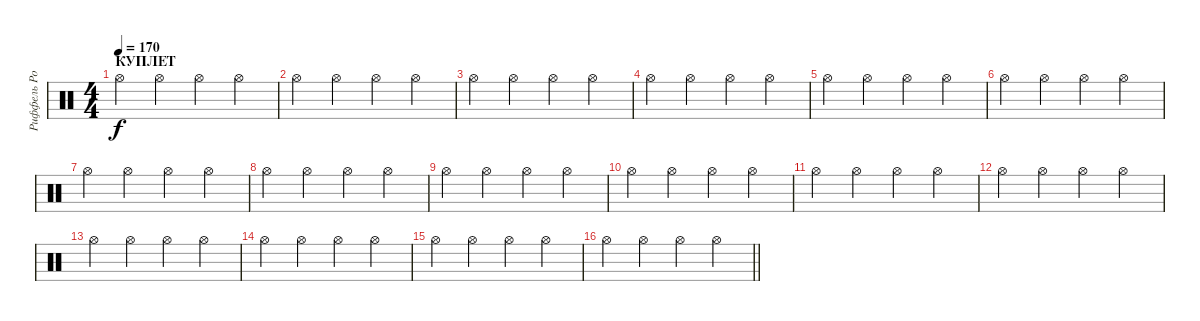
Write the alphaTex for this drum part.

\track ("Риффель Роман(хэты)" "Риффель Ро") {instrument percussion}
\staff {score}
\articulation defaults
\ts (4 4)
\section ("" "КУПЛЕТ")
\tempo 170
\clef neutral
\ks c "Hi-Hat (open)".4{dy f} "Hi-Hat (open)".4 "Hi-Hat (open)".4 "Hi-Hat (open)".4
|
"Hi-Hat (open)".4 "Hi-Hat (open)".4 "Hi-Hat (open)".4 "Hi-Hat (open)".4 |
"Hi-Hat (open)".4 "Hi-Hat (open)".4 "Hi-Hat (open)".4 "Hi-Hat (open)".4 |
"Hi-Hat (open)".4 "Hi-Hat (open)".4 "Hi-Hat (open)".4 "Hi-Hat (open)".4 |
"Hi-Hat (open)".4 "Hi-Hat (open)".4 "Hi-Hat (open)".4 "Hi-Hat (open)".4 |
"Hi-Hat (open)".4 "Hi-Hat (open)".4 "Hi-Hat (open)".4 "Hi-Hat (open)".4 |
"Hi-Hat (open)".4 "Hi-Hat (open)".4 "Hi-Hat (open)".4 "Hi-Hat (open)".4 |
"Hi-Hat (open)".4 "Hi-Hat (open)".4 "Hi-Hat (open)".4 "Hi-Hat (open)".4 |
"Hi-Hat (open)".4 "Hi-Hat (open)".4 "Hi-Hat (open)".4 "Hi-Hat (open)".4 |
"Hi-Hat (open)".4 "Hi-Hat (open)".4 "Hi-Hat (open)".4 "Hi-Hat (open)".4 |
"Hi-Hat (open)".4 "Hi-Hat (open)".4 "Hi-Hat (open)".4 "Hi-Hat (open)".4 |
"Hi-Hat (open)".4 "Hi-Hat (open)".4 "Hi-Hat (open)".4 "Hi-Hat (open)".4 |
"Hi-Hat (open)".4 "Hi-Hat (open)".4 "Hi-Hat (open)".4 "Hi-Hat (open)".4 |
"Hi-Hat (open)".4 "Hi-Hat (open)".4 "Hi-Hat (open)".4 "Hi-Hat (open)".4 |
"Hi-Hat (open)".4 "Hi-Hat (open)".4 "Hi-Hat (open)".4 "Hi-Hat (open)".4 |
\barLineRight lightlight "Hi-Hat (open)".4 "Hi-Hat (open)".4 "Hi-Hat (open)".4 "Hi-Hat (open)".4
